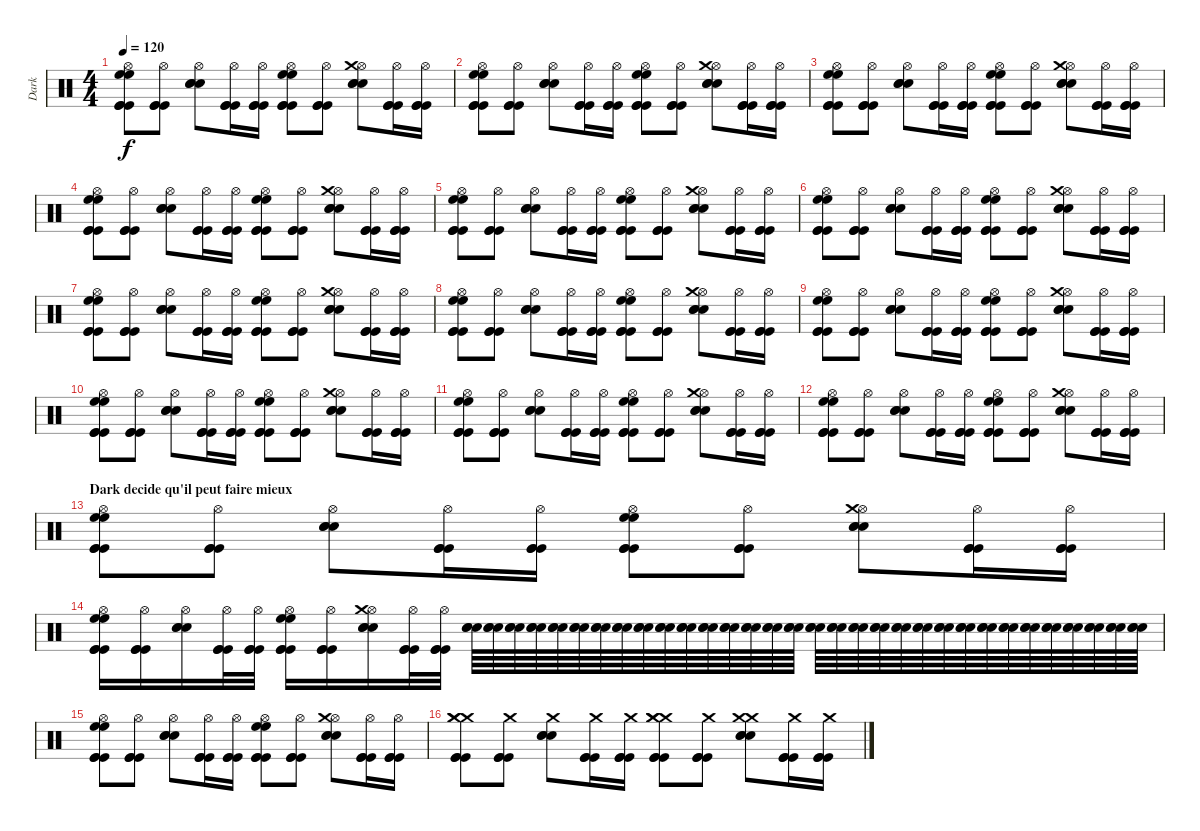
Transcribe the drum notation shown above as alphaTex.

\track ("Dark" "Dark") {instrument percussion}
\staff {score}
\articulation defaults
\ts (4 4)
\tempo 120
\clef neutral
\ks c
("Hi-Hat (open)" "High Floor Tom (hit)" "High Floor Tom (hit)" "Kick (hit)" "Kick (hit)" "Kick (hit)").8{dy f} ("Hi-Hat (open)" "Kick (hit)" "Kick (hit)" "Kick (hit)").8 ("Hi-Hat (open)" "Snare (hit) 2" "Snare (hit) 2" "Snare (hit) 2").8 ("Hi-Hat (open)" "Kick (hit)" "Kick (hit)" "Kick (hit)").16 ("Hi-Hat (open)" "Kick (hit)" "Kick (hit)" "Kick (hit)").16 ("Hi-Hat (open)" "High Floor Tom (hit)" "High Floor Tom (hit)" "Kick (hit)" "Kick (hit)" "Kick (hit)").8 ("Hi-Hat (open)" "Kick (hit)" "Kick (hit)" "Kick (hit)").8 ("Hi-Hat (open)" "Crash medium (hit)" "Snare (hit) 2" "Snare (hit) 2" "Snare (hit) 2").8 ("Hi-Hat (open)" "Kick (hit)" "Kick (hit)" "Kick (hit)").16 ("Hi-Hat (open)" "Kick (hit)" "Kick (hit)" "Kick (hit)").16 |
("Hi-Hat (open)" "High Floor Tom (hit)" "High Floor Tom (hit)" "Kick (hit)" "Kick (hit)" "Kick (hit)").8 ("Hi-Hat (open)" "Kick (hit)" "Kick (hit)" "Kick (hit)").8 ("Hi-Hat (open)" "Snare (hit) 2" "Snare (hit) 2" "Snare (hit) 2").8 ("Hi-Hat (open)" "Kick (hit)" "Kick (hit)" "Kick (hit)").16 ("Hi-Hat (open)" "Kick (hit)" "Kick (hit)" "Kick (hit)").16 ("Hi-Hat (open)" "High Floor Tom (hit)" "High Floor Tom (hit)" "Kick (hit)" "Kick (hit)" "Kick (hit)").8 ("Hi-Hat (open)" "Kick (hit)" "Kick (hit)" "Kick (hit)").8 ("Hi-Hat (open)" "Crash medium (hit)" "Snare (hit) 2" "Snare (hit) 2" "Snare (hit) 2").8 ("Hi-Hat (open)" "Kick (hit)" "Kick (hit)" "Kick (hit)").16 ("Hi-Hat (open)" "Kick (hit)" "Kick (hit)" "Kick (hit)").16 |
("Hi-Hat (open)" "High Floor Tom (hit)" "High Floor Tom (hit)" "Kick (hit)" "Kick (hit)" "Kick (hit)").8 ("Hi-Hat (open)" "Kick (hit)" "Kick (hit)" "Kick (hit)").8 ("Hi-Hat (open)" "Snare (hit) 2" "Snare (hit) 2" "Snare (hit) 2").8 ("Hi-Hat (open)" "Kick (hit)" "Kick (hit)" "Kick (hit)").16 ("Hi-Hat (open)" "Kick (hit)" "Kick (hit)" "Kick (hit)").16 ("Hi-Hat (open)" "High Floor Tom (hit)" "High Floor Tom (hit)" "Kick (hit)" "Kick (hit)" "Kick (hit)").8 ("Hi-Hat (open)" "Kick (hit)" "Kick (hit)" "Kick (hit)").8 ("Hi-Hat (open)" "Crash medium (hit)" "Snare (hit) 2" "Snare (hit) 2" "Snare (hit) 2").8 ("Hi-Hat (open)" "Kick (hit)" "Kick (hit)" "Kick (hit)").16 ("Hi-Hat (open)" "Kick (hit)" "Kick (hit)" "Kick (hit)").16 |
("Hi-Hat (open)" "High Floor Tom (hit)" "High Floor Tom (hit)" "Kick (hit)" "Kick (hit)" "Kick (hit)").8 ("Hi-Hat (open)" "Kick (hit)" "Kick (hit)" "Kick (hit)").8 ("Hi-Hat (open)" "Snare (hit) 2" "Snare (hit) 2" "Snare (hit) 2").8 ("Hi-Hat (open)" "Kick (hit)" "Kick (hit)" "Kick (hit)").16 ("Hi-Hat (open)" "Kick (hit)" "Kick (hit)" "Kick (hit)").16 ("Hi-Hat (open)" "High Floor Tom (hit)" "High Floor Tom (hit)" "Kick (hit)" "Kick (hit)" "Kick (hit)").8 ("Hi-Hat (open)" "Kick (hit)" "Kick (hit)" "Kick (hit)").8 ("Hi-Hat (open)" "Crash medium (hit)" "Snare (hit) 2" "Snare (hit) 2" "Snare (hit) 2").8 ("Hi-Hat (open)" "Kick (hit)" "Kick (hit)" "Kick (hit)").16 ("Hi-Hat (open)" "Kick (hit)" "Kick (hit)" "Kick (hit)").16 |
("Hi-Hat (open)" "High Floor Tom (hit)" "High Floor Tom (hit)" "Kick (hit)" "Kick (hit)" "Kick (hit)").8 ("Hi-Hat (open)" "Kick (hit)" "Kick (hit)" "Kick (hit)").8 ("Hi-Hat (open)" "Snare (hit) 2" "Snare (hit) 2" "Snare (hit) 2").8 ("Hi-Hat (open)" "Kick (hit)" "Kick (hit)" "Kick (hit)").16 ("Hi-Hat (open)" "Kick (hit)" "Kick (hit)" "Kick (hit)").16 ("Hi-Hat (open)" "High Floor Tom (hit)" "High Floor Tom (hit)" "Kick (hit)" "Kick (hit)" "Kick (hit)").8 ("Hi-Hat (open)" "Kick (hit)" "Kick (hit)" "Kick (hit)").8 ("Hi-Hat (open)" "Crash medium (hit)" "Snare (hit) 2" "Snare (hit) 2" "Snare (hit) 2").8 ("Hi-Hat (open)" "Kick (hit)" "Kick (hit)" "Kick (hit)").16 ("Hi-Hat (open)" "Kick (hit)" "Kick (hit)" "Kick (hit)").16 |
("Hi-Hat (open)" "High Floor Tom (hit)" "High Floor Tom (hit)" "Kick (hit)" "Kick (hit)" "Kick (hit)").8 ("Hi-Hat (open)" "Kick (hit)" "Kick (hit)" "Kick (hit)").8 ("Hi-Hat (open)" "Snare (hit) 2" "Snare (hit) 2" "Snare (hit) 2").8 ("Hi-Hat (open)" "Kick (hit)" "Kick (hit)" "Kick (hit)").16 ("Hi-Hat (open)" "Kick (hit)" "Kick (hit)" "Kick (hit)").16 ("Hi-Hat (open)" "High Floor Tom (hit)" "High Floor Tom (hit)" "Kick (hit)" "Kick (hit)" "Kick (hit)").8 ("Hi-Hat (open)" "Kick (hit)" "Kick (hit)" "Kick (hit)").8 ("Hi-Hat (open)" "Crash medium (hit)" "Snare (hit) 2" "Snare (hit) 2" "Snare (hit) 2").8 ("Hi-Hat (open)" "Kick (hit)" "Kick (hit)" "Kick (hit)").16 ("Hi-Hat (open)" "Kick (hit)" "Kick (hit)" "Kick (hit)").16 |
("Hi-Hat (open)" "High Floor Tom (hit)" "High Floor Tom (hit)" "Kick (hit)" "Kick (hit)" "Kick (hit)").8 ("Hi-Hat (open)" "Kick (hit)" "Kick (hit)" "Kick (hit)").8 ("Hi-Hat (open)" "Snare (hit) 2" "Snare (hit) 2" "Snare (hit) 2").8 ("Hi-Hat (open)" "Kick (hit)" "Kick (hit)" "Kick (hit)").16 ("Hi-Hat (open)" "Kick (hit)" "Kick (hit)" "Kick (hit)").16 ("Hi-Hat (open)" "High Floor Tom (hit)" "High Floor Tom (hit)" "Kick (hit)" "Kick (hit)" "Kick (hit)").8 ("Hi-Hat (open)" "Kick (hit)" "Kick (hit)" "Kick (hit)").8 ("Hi-Hat (open)" "Crash medium (hit)" "Snare (hit) 2" "Snare (hit) 2" "Snare (hit) 2").8 ("Hi-Hat (open)" "Kick (hit)" "Kick (hit)" "Kick (hit)").16 ("Hi-Hat (open)" "Kick (hit)" "Kick (hit)" "Kick (hit)").16 |
("Hi-Hat (open)" "High Floor Tom (hit)" "High Floor Tom (hit)" "Kick (hit)" "Kick (hit)" "Kick (hit)").8 ("Hi-Hat (open)" "Kick (hit)" "Kick (hit)" "Kick (hit)").8 ("Hi-Hat (open)" "Snare (hit) 2" "Snare (hit) 2" "Snare (hit) 2").8 ("Hi-Hat (open)" "Kick (hit)" "Kick (hit)" "Kick (hit)").16 ("Hi-Hat (open)" "Kick (hit)" "Kick (hit)" "Kick (hit)").16 ("Hi-Hat (open)" "High Floor Tom (hit)" "High Floor Tom (hit)" "Kick (hit)" "Kick (hit)" "Kick (hit)").8 ("Hi-Hat (open)" "Kick (hit)" "Kick (hit)" "Kick (hit)").8 ("Hi-Hat (open)" "Crash medium (hit)" "Snare (hit) 2" "Snare (hit) 2" "Snare (hit) 2").8 ("Hi-Hat (open)" "Kick (hit)" "Kick (hit)" "Kick (hit)").16 ("Hi-Hat (open)" "Kick (hit)" "Kick (hit)" "Kick (hit)").16 |
("Hi-Hat (open)" "High Floor Tom (hit)" "High Floor Tom (hit)" "Kick (hit)" "Kick (hit)" "Kick (hit)").8 ("Hi-Hat (open)" "Kick (hit)" "Kick (hit)" "Kick (hit)").8 ("Hi-Hat (open)" "Snare (hit) 2" "Snare (hit) 2" "Snare (hit) 2").8 ("Hi-Hat (open)" "Kick (hit)" "Kick (hit)" "Kick (hit)").16 ("Hi-Hat (open)" "Kick (hit)" "Kick (hit)" "Kick (hit)").16 ("Hi-Hat (open)" "High Floor Tom (hit)" "High Floor Tom (hit)" "Kick (hit)" "Kick (hit)" "Kick (hit)").8 ("Hi-Hat (open)" "Kick (hit)" "Kick (hit)" "Kick (hit)").8 ("Hi-Hat (open)" "Crash medium (hit)" "Snare (hit) 2" "Snare (hit) 2" "Snare (hit) 2").8 ("Hi-Hat (open)" "Kick (hit)" "Kick (hit)" "Kick (hit)").16 ("Hi-Hat (open)" "Kick (hit)" "Kick (hit)" "Kick (hit)").16 |
("Hi-Hat (open)" "High Floor Tom (hit)" "High Floor Tom (hit)" "Kick (hit)" "Kick (hit)" "Kick (hit)").8 ("Hi-Hat (open)" "Kick (hit)" "Kick (hit)" "Kick (hit)").8 ("Hi-Hat (open)" "Snare (hit) 2" "Snare (hit) 2" "Snare (hit) 2").8 ("Hi-Hat (open)" "Kick (hit)" "Kick (hit)" "Kick (hit)").16 ("Hi-Hat (open)" "Kick (hit)" "Kick (hit)" "Kick (hit)").16 ("Hi-Hat (open)" "High Floor Tom (hit)" "High Floor Tom (hit)" "Kick (hit)" "Kick (hit)" "Kick (hit)").8 ("Hi-Hat (open)" "Kick (hit)" "Kick (hit)" "Kick (hit)").8 ("Hi-Hat (open)" "Crash medium (hit)" "Snare (hit) 2" "Snare (hit) 2" "Snare (hit) 2").8 ("Hi-Hat (open)" "Kick (hit)" "Kick (hit)" "Kick (hit)").16 ("Hi-Hat (open)" "Kick (hit)" "Kick (hit)" "Kick (hit)").16 |
("Hi-Hat (open)" "High Floor Tom (hit)" "High Floor Tom (hit)" "Kick (hit)" "Kick (hit)" "Kick (hit)").8 ("Hi-Hat (open)" "Kick (hit)" "Kick (hit)" "Kick (hit)").8 ("Hi-Hat (open)" "Snare (hit) 2" "Snare (hit) 2" "Snare (hit) 2").8 ("Hi-Hat (open)" "Kick (hit)" "Kick (hit)" "Kick (hit)").16 ("Hi-Hat (open)" "Kick (hit)" "Kick (hit)" "Kick (hit)").16 ("Hi-Hat (open)" "High Floor Tom (hit)" "High Floor Tom (hit)" "Kick (hit)" "Kick (hit)" "Kick (hit)").8 ("Hi-Hat (open)" "Kick (hit)" "Kick (hit)" "Kick (hit)").8 ("Hi-Hat (open)" "Crash medium (hit)" "Snare (hit) 2" "Snare (hit) 2" "Snare (hit) 2").8 ("Hi-Hat (open)" "Kick (hit)" "Kick (hit)" "Kick (hit)").16 ("Hi-Hat (open)" "Kick (hit)" "Kick (hit)" "Kick (hit)").16 |
("Hi-Hat (open)" "High Floor Tom (hit)" "High Floor Tom (hit)" "Kick (hit)" "Kick (hit)" "Kick (hit)").8 ("Hi-Hat (open)" "Kick (hit)" "Kick (hit)" "Kick (hit)").8 ("Hi-Hat (open)" "Snare (hit) 2" "Snare (hit) 2" "Snare (hit) 2").8 ("Hi-Hat (open)" "Kick (hit)" "Kick (hit)" "Kick (hit)").16 ("Hi-Hat (open)" "Kick (hit)" "Kick (hit)" "Kick (hit)").16 ("Hi-Hat (open)" "High Floor Tom (hit)" "High Floor Tom (hit)" "Kick (hit)" "Kick (hit)" "Kick (hit)").8 ("Hi-Hat (open)" "Kick (hit)" "Kick (hit)" "Kick (hit)").8 ("Hi-Hat (open)" "Crash medium (hit)" "Snare (hit) 2" "Snare (hit) 2" "Snare (hit) 2").8 ("Hi-Hat (open)" "Kick (hit)" "Kick (hit)" "Kick (hit)").16 ("Hi-Hat (open)" "Kick (hit)" "Kick (hit)" "Kick (hit)").16 |
\section ("" "Dark decide qu'il peut faire mieux")
("Hi-Hat (open)" "High Floor Tom (hit)" "High Floor Tom (hit)" "Kick (hit)" "Kick (hit)" "Kick (hit)").8 ("Hi-Hat (open)" "Kick (hit)" "Kick (hit)" "Kick (hit)").8 ("Hi-Hat (open)" "Snare (hit) 2" "Snare (hit) 2" "Snare (hit) 2").8 ("Hi-Hat (open)" "Kick (hit)" "Kick (hit)" "Kick (hit)").16 ("Hi-Hat (open)" "Kick (hit)" "Kick (hit)" "Kick (hit)").16 ("Hi-Hat (open)" "High Floor Tom (hit)" "High Floor Tom (hit)" "Kick (hit)" "Kick (hit)" "Kick (hit)").8 ("Hi-Hat (open)" "Kick (hit)" "Kick (hit)" "Kick (hit)").8 ("Hi-Hat (open)" "Crash medium (hit)" "Snare (hit) 2" "Snare (hit) 2" "Snare (hit) 2").8 ("Hi-Hat (open)" "Kick (hit)" "Kick (hit)" "Kick (hit)").16 ("Hi-Hat (open)" "Kick (hit)" "Kick (hit)" "Kick (hit)").16 |
("Hi-Hat (open)" "High Floor Tom (hit)" "High Floor Tom (hit)" "Kick (hit)" "Kick (hit)" "Kick (hit)").16 ("Hi-Hat (open)" "Kick (hit)" "Kick (hit)" "Kick (hit)").16 ("Hi-Hat (open)" "Snare (hit) 2" "Snare (hit) 2" "Snare (hit) 2").16 ("Hi-Hat (open)" "Kick (hit)" "Kick (hit)" "Kick (hit)").32 ("Hi-Hat (open)" "Kick (hit)" "Kick (hit)" "Kick (hit)").32 ("Hi-Hat (open)" "High Floor Tom (hit)" "High Floor Tom (hit)" "Kick (hit)" "Kick (hit)" "Kick (hit)").16 ("Hi-Hat (open)" "Kick (hit)" "Kick (hit)" "Kick (hit)").16 ("Hi-Hat (open)" "Crash medium (hit)" "Snare (hit) 2" "Snare (hit) 2" "Snare (hit) 2").16 ("Hi-Hat (open)" "Kick (hit)" "Kick (hit)" "Kick (hit)").32 ("Hi-Hat (open)" "Kick (hit)" "Kick (hit)" "Kick (hit)").32 ("Snare (hit) 2" "Snare (hit) 2" "Snare (hit) 2").64 ("Snare (hit) 2" "Snare (hit) 2" "Snare (hit) 2").64 ("Snare (hit) 2" "Snare (hit) 2" "Snare (hit) 2").64 ("Snare (hit) 2" "Snare (hit) 2" "Snare (hit) 2").64 ("Snare (hit) 2" "Snare (hit) 2" "Snare (hit) 2").64 ("Snare (hit) 2" "Snare (hit) 2" "Snare (hit) 2").64 ("Snare (hit) 2" "Snare (hit) 2" "Snare (hit) 2").64 ("Snare (hit) 2" "Snare (hit) 2" "Snare (hit) 2").64 ("Snare (hit) 2" "Snare (hit) 2" "Snare (hit) 2").64 ("Snare (hit) 2" "Snare (hit) 2" "Snare (hit) 2").64 ("Snare (hit) 2" "Snare (hit) 2" "Snare (hit) 2").64 ("Snare (hit) 2" "Snare (hit) 2" "Snare (hit) 2").64 ("Snare (hit) 2" "Snare (hit) 2" "Snare (hit) 2").64 ("Snare (hit) 2" "Snare (hit) 2" "Snare (hit) 2").64 ("Snare (hit) 2" "Snare (hit) 2" "Snare (hit) 2").64 ("Snare (hit) 2" "Snare (hit) 2" "Snare (hit) 2").64 ("Snare (hit) 2" "Snare (hit) 2" "Snare (hit) 2").64 ("Snare (hit) 2" "Snare (hit) 2" "Snare (hit) 2").64 ("Snare (hit) 2" "Snare (hit) 2" "Snare (hit) 2").64 ("Snare (hit) 2" "Snare (hit) 2" "Snare (hit) 2").64 ("Snare (hit) 2" "Snare (hit) 2" "Snare (hit) 2").64 ("Snare (hit) 2" "Snare (hit) 2" "Snare (hit) 2").64 ("Snare (hit) 2" "Snare (hit) 2" "Snare (hit) 2").64 ("Snare (hit) 2" "Snare (hit) 2" "Snare (hit) 2").64 ("Snare (hit) 2" "Snare (hit) 2" "Snare (hit) 2").64 ("Snare (hit) 2" "Snare (hit) 2" "Snare (hit) 2").64 ("Snare (hit) 2" "Snare (hit) 2" "Snare (hit) 2").64 ("Snare (hit) 2" "Snare (hit) 2" "Snare (hit) 2").64 ("Snare (hit) 2" "Snare (hit) 2" "Snare (hit) 2").64 ("Snare (hit) 2" "Snare (hit) 2" "Snare (hit) 2").64 ("Snare (hit) 2" "Snare (hit) 2" "Snare (hit) 2").64 ("Snare (hit) 2" "Snare (hit) 2" "Snare (hit) 2").64 |
("Hi-Hat (open)" "High Floor Tom (hit)" "High Floor Tom (hit)" "Kick (hit)" "Kick (hit)" "Kick (hit)").8 ("Hi-Hat (open)" "Kick (hit)" "Kick (hit)" "Kick (hit)").8 ("Hi-Hat (open)" "Snare (hit) 2" "Snare (hit) 2" "Snare (hit) 2").8 ("Hi-Hat (open)" "Kick (hit)" "Kick (hit)" "Kick (hit)").16 ("Hi-Hat (open)" "Kick (hit)" "Kick (hit)" "Kick (hit)").16 ("Hi-Hat (open)" "High Floor Tom (hit)" "High Floor Tom (hit)" "Kick (hit)" "Kick (hit)" "Kick (hit)").8 ("Hi-Hat (open)" "Kick (hit)" "Kick (hit)" "Kick (hit)").8 ("Hi-Hat (open)" "Crash medium (hit)" "Snare (hit) 2" "Snare (hit) 2" "Snare (hit) 2").8 ("Hi-Hat (open)" "Kick (hit)" "Kick (hit)" "Kick (hit)").16 ("Hi-Hat (open)" "Kick (hit)" "Kick (hit)" "Kick (hit)").16 |
("Crash medium (hit)" "Crash medium (hit)" "Crash medium (hit)" "Kick (hit)" "Kick (hit)" "Kick (hit)").8 ("Crash medium (hit)" "Kick (hit)" "Kick (hit)" "Kick (hit)").8 ("Crash medium (hit)" "Snare (hit) 2" "Snare (hit) 2" "Snare (hit) 2").8 ("Crash medium (hit)" "Kick (hit)" "Kick (hit)" "Kick (hit)").16 ("Crash medium (hit)" "Kick (hit)" "Kick (hit)" "Kick (hit)").16 ("Crash medium (hit)" "Crash medium (hit)" "Crash medium (hit)" "Kick (hit)" "Kick (hit)" "Kick (hit)").8 ("Crash medium (hit)" "Kick (hit)" "Kick (hit)" "Kick (hit)").8 ("Crash medium (hit)" "Crash medium (hit)" "Snare (hit) 2" "Snare (hit) 2" "Snare (hit) 2").8 ("Crash medium (hit)" "Kick (hit)" "Kick (hit)" "Kick (hit)").16 ("Crash medium (hit)" "Kick (hit)" "Kick (hit)" "Kick (hit)").16
